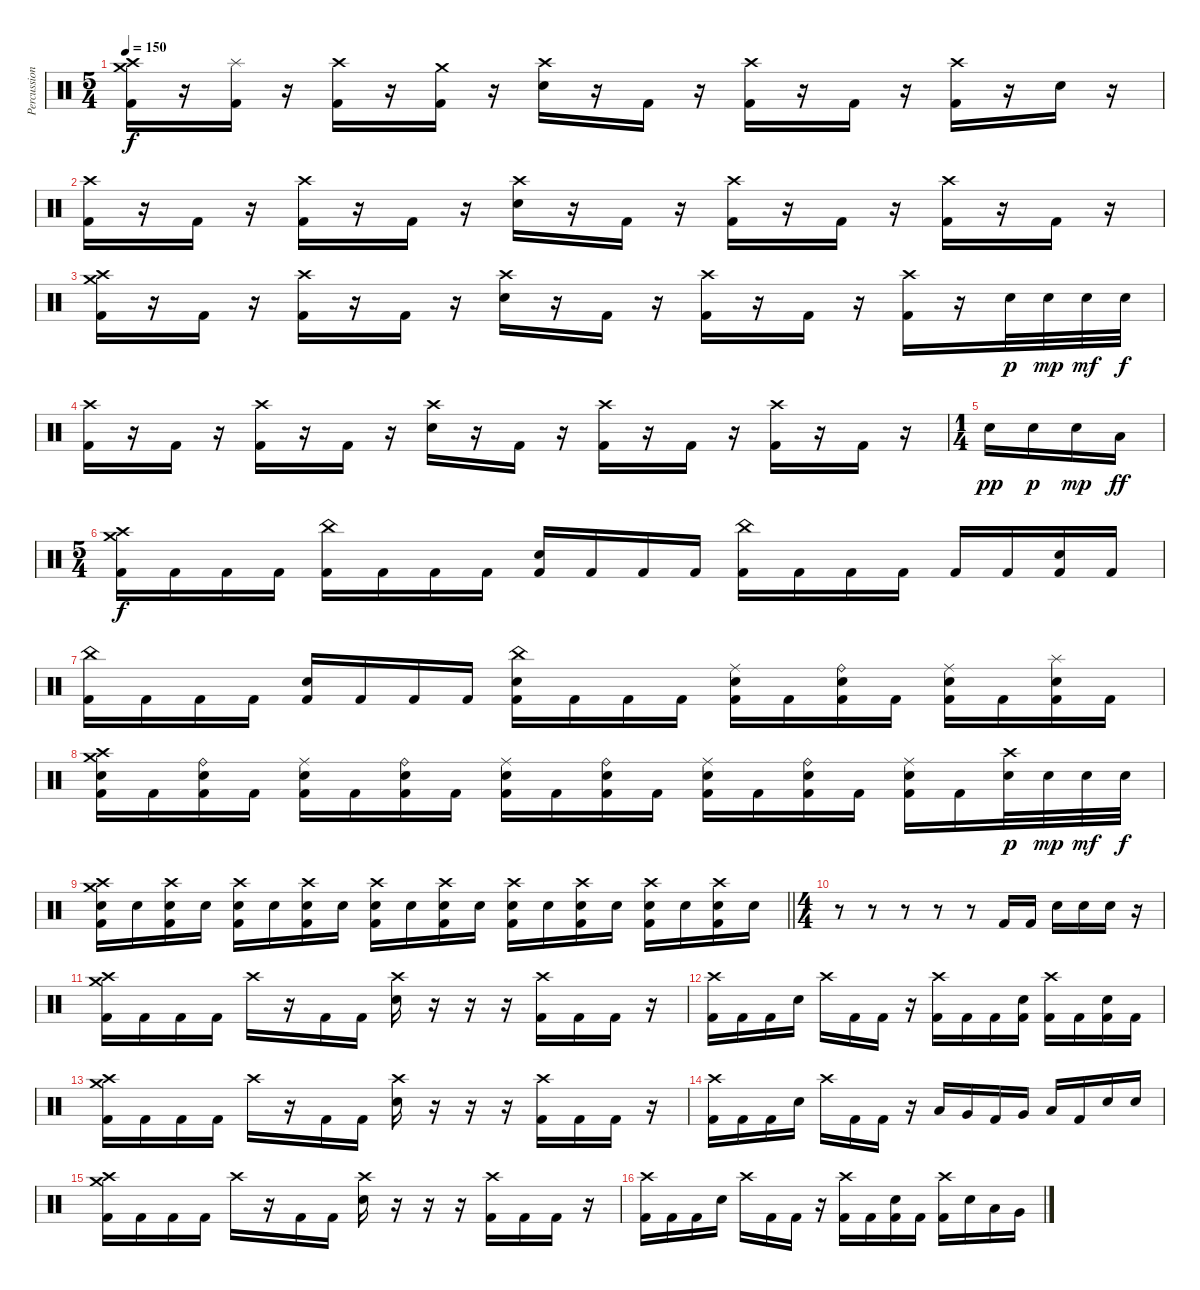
\track ("Percussion" "Percussion") {instrument percussion}
\staff {score}
\articulation defaults
\ts (5 4)
\tempo 150
\clef neutral
\ks c
("Crash high (hit)" "Crash medium (hit)" "Kick (hit) 2").16{dy f} r.16 ("Splash (hit)" "Kick (hit) 2").16 r.16 ("Crash high (hit)" "Kick (hit) 2").16 r.16 ("Crash medium (hit)" "Kick (hit) 2").16 r.16 ("Crash high (hit)" "Snare (hit) 2").16 r.16 "Kick (hit) 2".16 r.16 ("Crash high (hit)" "Kick (hit) 2").16 r.16 "Kick (hit) 2".16 r.16 ("Crash high (hit)" "Kick (hit) 2").16 r.16 "Snare (hit) 2".16 r.16 |
("Crash high (hit)" "Kick (hit) 2").16 r.16 "Kick (hit) 2".16 r.16 ("Crash high (hit)" "Kick (hit) 2").16 r.16 "Kick (hit) 2".16 r.16 ("Crash high (hit)" "Snare (hit) 2").16 r.16 "Kick (hit) 2".16 r.16 ("Crash high (hit)" "Kick (hit) 2").16 r.16 "Kick (hit) 2".16 r.16 ("Crash high (hit)" "Kick (hit) 2").16 r.16 "Kick (hit) 2".16 r.16 |
("Crash high (hit)" "Crash medium (hit)" "Kick (hit) 2").16 r.16 "Kick (hit) 2".16 r.16 ("Crash high (hit)" "Kick (hit) 2").16 r.16 "Kick (hit) 2".16 r.16 ("Crash high (hit)" "Snare (hit) 2").16 r.16 "Kick (hit) 2".16 r.16 ("Crash high (hit)" "Kick (hit) 2").16 r.16 "Kick (hit) 2".16 r.16 ("Crash high (hit)" "Kick (hit) 2").16 r.16 "Snare (hit) 2".32{dy p} "Snare (hit) 2".32{dy mp} "Snare (hit) 2".32{dy mf} "Snare (hit) 2".32{dy f} |
("Crash high (hit)" "Kick (hit) 2").16 r.16 "Kick (hit) 2".16 r.16 ("Crash high (hit)" "Kick (hit) 2").16 r.16 "Kick (hit) 2".16 r.16 ("Crash high (hit)" "Snare (hit) 2").16 r.16 "Kick (hit) 2".16 r.16 ("Crash high (hit)" "Kick (hit) 2").16 r.16 "Kick (hit) 2".16 r.16 ("Crash high (hit)" "Kick (hit) 2").16 r.16 "Kick (hit) 2".16 r.16 |
\ts (1 4)
"Snare (hit) 2".16{dy pp} "Snare (hit) 2".16{dy p} "Snare (hit) 2".16{dy mp} "Low Tom (hit)".16{dy ff} |
\ts (5 4)
("Crash high (hit)" "Crash medium (hit)" "Kick (hit) 2").16{dy f} "Kick (hit) 2".16 "Kick (hit) 2".16 "Kick (hit) 2".16 ("China (hit)" "Kick (hit) 2").16 "Kick (hit) 2".16 "Kick (hit) 2".16 "Kick (hit) 2".16 ("Snare (hit) 2" "Kick (hit) 2").16 "Kick (hit) 2".16 "Kick (hit) 2".16 "Kick (hit) 2".16 ("China (hit)" "Kick (hit) 2").16 "Kick (hit) 2".16 "Kick (hit) 2".16 "Kick (hit) 2".16 "Kick (hit) 2".16 "Kick (hit) 2".16 ("Snare (hit) 2" "Kick (hit) 2").16 "Kick (hit) 2".16 |
("China (hit)" "Kick (hit) 2").16 "Kick (hit) 2".16 "Kick (hit) 2".16 "Kick (hit) 2".16 ("Snare (hit) 2" "Kick (hit) 2").16 "Kick (hit) 2".16 "Kick (hit) 2".16 "Kick (hit) 2".16 ("China (hit)" "Snare (hit) 2" "Kick (hit) 2").16 "Kick (hit) 2".16 "Kick (hit) 2".16 "Kick (hit) 2".16 ("Ride (middle)" "Snare (hit) 2" "Kick (hit) 2").16 "Kick (hit) 2".16 ("Ride (bell)" "Snare (hit) 2" "Kick (hit) 2").16 "Kick (hit) 2".16 ("Ride (middle)" "Snare (hit) 2" "Kick (hit) 2").16 "Kick (hit) 2".16 ("Splash (hit)" "Snare (hit) 2" "Kick (hit) 2").16 "Kick (hit) 2".16 |
("Crash high (hit)" "Crash medium (hit)" "Snare (hit) 2" "Kick (hit) 2").16 "Kick (hit) 2".16 ("Ride (bell)" "Snare (hit) 2" "Kick (hit) 2").16 "Kick (hit) 2".16 ("Ride (middle)" "Snare (hit) 2" "Kick (hit) 2").16 "Kick (hit) 2".16 ("Ride (bell)" "Snare (hit) 2" "Kick (hit) 2").16 "Kick (hit) 2".16 ("Ride (middle)" "Snare (hit) 2" "Kick (hit) 2").16 "Kick (hit) 2".16 ("Ride (bell)" "Snare (hit) 2" "Kick (hit) 2").16 "Kick (hit) 2".16 ("Ride (middle)" "Snare (hit) 2" "Kick (hit) 2").16 "Kick (hit) 2".16 ("Ride (bell)" "Snare (hit) 2" "Kick (hit) 2").16 "Kick (hit) 2".16 ("Ride (middle)" "Snare (hit) 2" "Kick (hit) 2").16 "Kick (hit) 2".16 ("Crash high (hit)" "Snare (hit) 2").32{dy p} "Snare (hit) 2".32{dy mp} "Snare (hit) 2".32{dy mf} "Snare (hit) 2".32{dy f} |
\barLineRight lightlight
("Crash high (hit)" "Crash medium (hit)" "Snare (hit) 2" "Kick (hit) 2").16 "Snare (hit) 2".16 ("Crash high (hit)" "Snare (hit) 2" "Kick (hit) 2").16 "Snare (hit) 2".16 ("Crash high (hit)" "Snare (hit) 2" "Kick (hit) 2").16 "Snare (hit) 2".16 ("Crash high (hit)" "Snare (hit) 2" "Kick (hit) 2").16 "Snare (hit) 2".16 ("Crash high (hit)" "Snare (hit) 2" "Kick (hit) 2").16 "Snare (hit) 2".16 ("Crash high (hit)" "Snare (hit) 2" "Kick (hit) 2").16 "Snare (hit) 2".16 ("Crash high (hit)" "Snare (hit) 2" "Kick (hit) 2").16 "Snare (hit) 2".16 ("Crash high (hit)" "Snare (hit) 2" "Kick (hit) 2").16 "Snare (hit) 2".16 ("Crash high (hit)" "Snare (hit) 2" "Kick (hit) 2").16 "Snare (hit) 2".16 ("Crash high (hit)" "Snare (hit) 2" "Kick (hit) 2").16 "Snare (hit) 2".16 |
\ts (4 4)
r.8 r.8 r.8 r.8 r.8 "Kick (hit) 2".16 "Kick (hit) 2".16 "Snare (hit) 2".16 "Snare (hit) 2".16 "Snare (hit) 2".16 r.16 |
("Crash high (hit)" "Crash medium (hit)" "Kick (hit) 2").16 "Kick (hit) 2".16 "Kick (hit) 2".16 "Kick (hit) 2".16 "Crash high (hit)".16 r.16 "Kick (hit) 2".16 "Kick (hit) 2".16 ("Crash high (hit)" "Snare (hit) 2").16 r.16 r.16 r.16 ("Crash high (hit)" "Kick (hit) 2").16 "Kick (hit) 2".16 "Kick (hit) 2".16 r.16 |
("Crash high (hit)" "Kick (hit) 2").16 "Kick (hit) 2".16 "Kick (hit) 2".16 "Snare (hit) 2".16 "Crash high (hit)".16 "Kick (hit) 2".16 "Kick (hit) 2".16 r.16 ("Crash high (hit)" "Kick (hit) 2").16 "Kick (hit) 2".16 "Kick (hit) 2".16 ("Snare (hit) 2" "Kick (hit) 2").16 ("Crash high (hit)" "Kick (hit) 2").16 "Kick (hit) 2".16 ("Snare (hit) 2" "Kick (hit) 2").16 "Kick (hit) 2".16 |
("Crash high (hit)" "Crash medium (hit)" "Kick (hit) 2").16 "Kick (hit) 2".16 "Kick (hit) 2".16 "Kick (hit) 2".16 "Crash high (hit)".16 r.16 "Kick (hit) 2".16 "Kick (hit) 2".16 ("Crash high (hit)" "Snare (hit) 2").16 r.16 r.16 r.16 ("Crash high (hit)" "Kick (hit) 2").16 "Kick (hit) 2".16 "Kick (hit) 2".16 r.16 |
("Crash high (hit)" "Kick (hit) 2").16 "Kick (hit) 2".16 "Kick (hit) 2".16 "Snare (hit) 2".16 "Crash high (hit)".16 "Kick (hit) 2".16 "Kick (hit) 2".16 r.16 "Low Tom (hit)".16 "Very Low Tom (hit)".16 "Kick (hit) 2".16 "Very Low Tom (hit)".16 "Low Floor Tom (hit)".16 "Kick (hit) 2".16 "Snare (hit) 2".16 "Snare (hit) 2".16 |
("Crash high (hit)" "Crash medium (hit)" "Kick (hit) 2").16 "Kick (hit) 2".16 "Kick (hit) 2".16 "Kick (hit) 2".16 "Crash high (hit)".16 r.16 "Kick (hit) 2".16 "Kick (hit) 2".16 ("Crash high (hit)" "Snare (hit) 2").16 r.16 r.16 r.16 ("Crash high (hit)" "Kick (hit) 2").16 "Kick (hit) 2".16 "Kick (hit) 2".16 r.16 |
("Crash high (hit)" "Kick (hit) 2").16 "Kick (hit) 2".16 "Kick (hit) 2".16 "Snare (hit) 2".16 "Crash high (hit)".16 "Kick (hit) 2".16 "Kick (hit) 2".16 r.16 ("Crash high (hit)" "Kick (hit) 2").16 "Kick (hit) 2".16 ("Snare (hit) 2" "Kick (hit) 2").16 "Kick (hit) 2".16 ("Crash high (hit)" "Kick (hit) 2").16 "Snare (hit) 2".16 "Low Tom (hit)".16 "Very Low Tom (hit)".16
